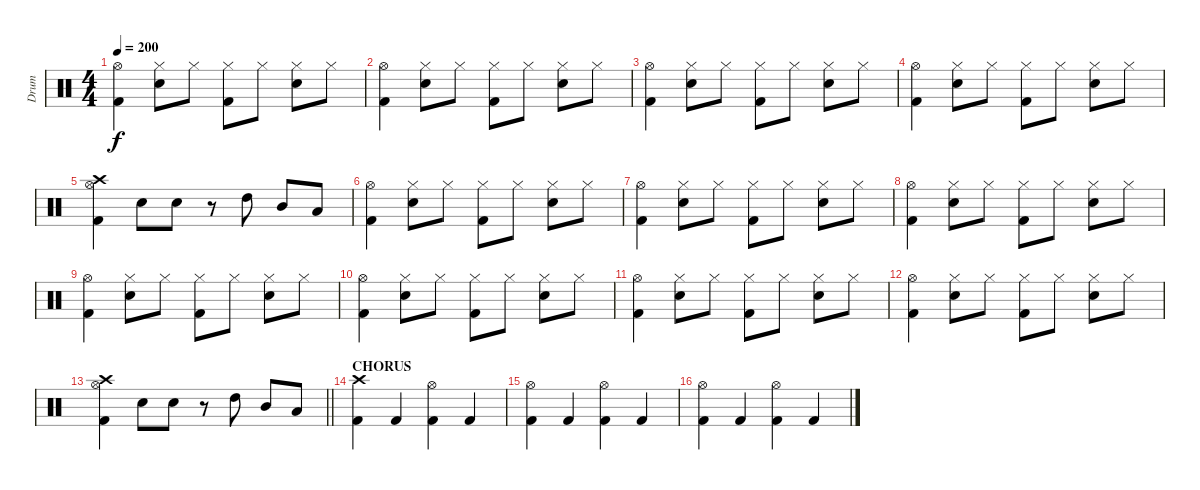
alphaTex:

\track ("Drum" "Drum") {instrument percussion}
\staff {score}
\articulation defaults
\ts (4 4)
\tempo 200
\clef neutral
\ks c
("Hi-Hat (open)" "Kick (hit) 2").4{dy f} ("Hi-Hat (closed)" "Snare (hit) 2").8 "Hi-Hat (closed)".8 ("Hi-Hat (closed)" "Kick (hit) 2").8 "Hi-Hat (closed)".8 ("Hi-Hat (closed)" "Snare (hit) 2").8 "Hi-Hat (closed)".8 |
("Hi-Hat (open)" "Kick (hit) 2").4 ("Hi-Hat (closed)" "Snare (hit) 2").8 "Hi-Hat (closed)".8 ("Hi-Hat (closed)" "Kick (hit) 2").8 "Hi-Hat (closed)".8 ("Hi-Hat (closed)" "Snare (hit) 2").8 "Hi-Hat (closed)".8 |
("Hi-Hat (open)" "Kick (hit) 2").4 ("Hi-Hat (closed)" "Snare (hit) 2").8 "Hi-Hat (closed)".8 ("Hi-Hat (closed)" "Kick (hit) 2").8 "Hi-Hat (closed)".8 ("Hi-Hat (closed)" "Snare (hit) 2").8 "Hi-Hat (closed)".8 |
("Hi-Hat (open)" "Kick (hit) 2").4 ("Hi-Hat (closed)" "Snare (hit) 2").8 "Hi-Hat (closed)".8 ("Hi-Hat (closed)" "Kick (hit) 2").8 "Hi-Hat (closed)".8 ("Hi-Hat (closed)" "Snare (hit) 2").8 "Hi-Hat (closed)".8 |
("Crash high (hit)" "Hi-Hat (open)" "Kick (hit) 2").4 "Snare (hit) 2".8 "Snare (hit) 2".8 r.8 "High Tom (hit)".8 "Mid Tom (hit)".8 "Low Tom (hit)".8 |
("Hi-Hat (open)" "Kick (hit) 2").4 ("Hi-Hat (closed)" "Snare (hit) 2").8 "Hi-Hat (closed)".8 ("Hi-Hat (closed)" "Kick (hit) 2").8 "Hi-Hat (closed)".8 ("Hi-Hat (closed)" "Snare (hit) 2").8 "Hi-Hat (closed)".8 |
("Hi-Hat (open)" "Kick (hit) 2").4 ("Hi-Hat (closed)" "Snare (hit) 2").8 "Hi-Hat (closed)".8 ("Hi-Hat (closed)" "Kick (hit) 2").8 "Hi-Hat (closed)".8 ("Hi-Hat (closed)" "Snare (hit) 2").8 "Hi-Hat (closed)".8 |
("Hi-Hat (open)" "Kick (hit) 2").4 ("Hi-Hat (closed)" "Snare (hit) 2").8 "Hi-Hat (closed)".8 ("Hi-Hat (closed)" "Kick (hit) 2").8 "Hi-Hat (closed)".8 ("Hi-Hat (closed)" "Snare (hit) 2").8 "Hi-Hat (closed)".8 |
("Hi-Hat (open)" "Kick (hit) 2").4 ("Hi-Hat (closed)" "Snare (hit) 2").8 "Hi-Hat (closed)".8 ("Hi-Hat (closed)" "Kick (hit) 2").8 "Hi-Hat (closed)".8 ("Hi-Hat (closed)" "Snare (hit) 2").8 "Hi-Hat (closed)".8 |
("Hi-Hat (open)" "Kick (hit) 2").4 ("Hi-Hat (closed)" "Snare (hit) 2").8 "Hi-Hat (closed)".8 ("Hi-Hat (closed)" "Kick (hit) 2").8 "Hi-Hat (closed)".8 ("Hi-Hat (closed)" "Snare (hit) 2").8 "Hi-Hat (closed)".8 |
("Hi-Hat (open)" "Kick (hit) 2").4 ("Hi-Hat (closed)" "Snare (hit) 2").8 "Hi-Hat (closed)".8 ("Hi-Hat (closed)" "Kick (hit) 2").8 "Hi-Hat (closed)".8 ("Hi-Hat (closed)" "Snare (hit) 2").8 "Hi-Hat (closed)".8 |
("Hi-Hat (open)" "Kick (hit) 2").4 ("Hi-Hat (closed)" "Snare (hit) 2").8 "Hi-Hat (closed)".8 ("Hi-Hat (closed)" "Kick (hit) 2").8 "Hi-Hat (closed)".8 ("Hi-Hat (closed)" "Snare (hit) 2").8 "Hi-Hat (closed)".8 |
\barLineRight lightlight
("Crash high (hit)" "Hi-Hat (open)" "Kick (hit) 2").4 "Snare (hit) 2".8 "Snare (hit) 2".8 r.8 "High Tom (hit)".8 "Mid Tom (hit)".8 "Low Tom (hit)".8 |
\section ("" "CHORUS")
("Crash high (hit)" "Kick (hit) 2").4 "Kick (hit) 2".4 ("Hi-Hat (open)" "Kick (hit) 2").4 "Kick (hit) 2".4 |
("Hi-Hat (open)" "Kick (hit) 2").4 "Kick (hit) 2".4 ("Hi-Hat (open)" "Kick (hit) 2").4 "Kick (hit) 2".4 |
("Hi-Hat (open)" "Kick (hit) 2").4 "Kick (hit) 2".4 ("Hi-Hat (open)" "Kick (hit) 2").4 "Kick (hit) 2".4
